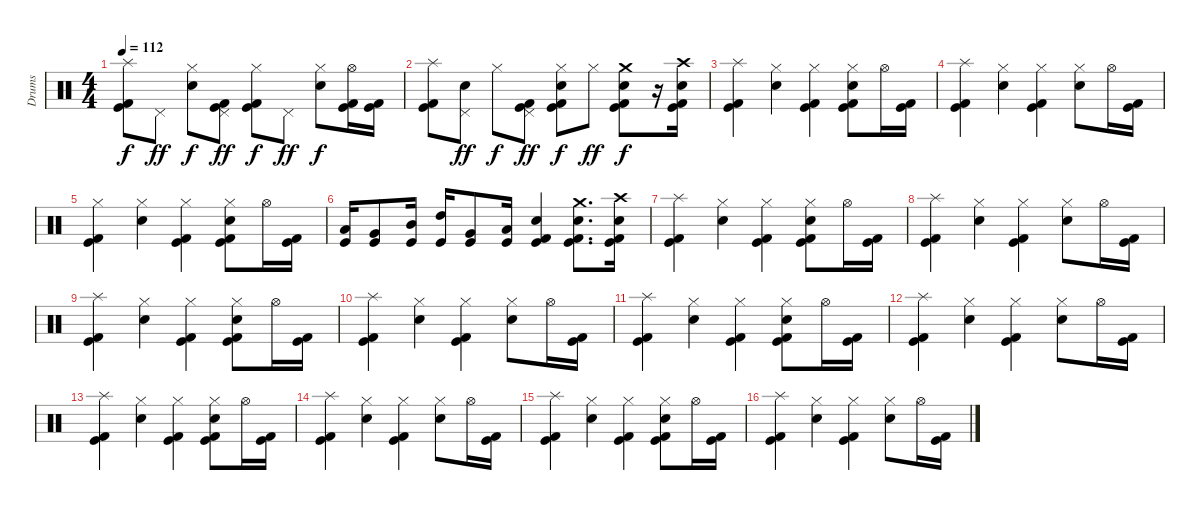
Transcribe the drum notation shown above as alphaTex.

\track ("Drums" "Drums") {instrument percussion}
\staff {score}
\articulation defaults
\ts (4 4)
\tempo 112
\clef neutral
\ks c
("Splash (hit)" "Kick (hit) 2" "Kick (hit)").8{dy f} "Pedal Hi-Hat (hit)".8{dy ff} ("Hi-Hat (closed)" "Electric Snare (hit)").8{dy f} ("Pedal Hi-Hat (hit)" "Kick (hit)" "Kick (hit) 2").8{dy ff} ("Hi-Hat (closed)" "Kick (hit)" "Kick (hit) 2").8{dy f} "Pedal Hi-Hat (hit)".8{dy ff} ("Hi-Hat (closed)" "Electric Snare (hit)").8{dy f} ("Hi-Hat (open)" "Kick (hit) 2" "Kick (hit)").16 ("Kick (hit) 2" "Kick (hit)").16 |
("Splash (hit)" "Kick (hit) 2" "Kick (hit)").8 ("Pedal Hi-Hat (hit)" "Electric Snare (hit)").8{dy ff} "Hi-Hat (closed)".8{dy f} ("Pedal Hi-Hat (hit)" "Kick (hit)" "Kick (hit) 2").8{dy ff} ("Hi-Hat (closed)" "Electric Snare (hit)" "Kick (hit)" "Kick (hit) 2").8{dy f} "Hi-Hat (closed)".8{dy ff} ("Crash medium (hit)" "Electric Snare (hit)" "Kick (hit) 2" "Kick (hit)").8{dy f} r.16 ("Crash high (hit)" "Electric Snare (hit)" "Kick (hit) 2" "Kick (hit)").16 |
("Splash (hit)" "Kick (hit) 2" "Kick (hit)").4 ("Hi-Hat (closed)" "Electric Snare (hit)").4 ("Hi-Hat (closed)" "Kick (hit) 2" "Kick (hit)").4 ("Hi-Hat (closed)" "Electric Snare (hit)" "Kick (hit) 2" "Kick (hit)").8 "Hi-Hat (open)".16 ("Kick (hit) 2" "Kick (hit)").16 |
("Splash (hit)" "Kick (hit) 2" "Kick (hit)").4 ("Hi-Hat (closed)" "Electric Snare (hit)").4 ("Hi-Hat (closed)" "Kick (hit) 2" "Kick (hit)").4 ("Hi-Hat (closed)" "Electric Snare (hit)").8 "Hi-Hat (open)".16 ("Kick (hit) 2" "Kick (hit)").16 |
("Hi-Hat (closed)" "Kick (hit) 2" "Kick (hit)").4 ("Hi-Hat (closed)" "Electric Snare (hit)").4 ("Hi-Hat (closed)" "Kick (hit) 2" "Kick (hit)").4 ("Hi-Hat (closed)" "Electric Snare (hit)" "Kick (hit) 2" "Kick (hit)").8 "Hi-Hat (open)".16 ("Kick (hit) 2" "Kick (hit)").16 |
("Low Tom (hit)" "Kick (hit)").16 ("Very Low Tom (hit)" "Kick (hit)").8 ("Mid Tom (hit)" "Kick (hit)").16 ("High Tom (hit)" "Kick (hit)").16 ("Very Low Tom (hit)" "Kick (hit)").8 ("Low Floor Tom (hit)" "Kick (hit)").16 ("Electric Snare (hit)" "Kick (hit) 2" "Kick (hit)").4 ("Crash medium (hit)" "Electric Snare (hit)" "Kick (hit) 2" "Kick (hit)").8{d} ("Crash high (hit)" "Electric Snare (hit)" "Kick (hit) 2" "Kick (hit)").16 |
("Splash (hit)" "Kick (hit) 2" "Kick (hit)").4 ("Hi-Hat (closed)" "Electric Snare (hit)").4 ("Hi-Hat (closed)" "Kick (hit) 2" "Kick (hit)").4 ("Hi-Hat (closed)" "Electric Snare (hit)" "Kick (hit) 2" "Kick (hit)").8 "Hi-Hat (open)".16 ("Kick (hit) 2" "Kick (hit)").16 |
("Splash (hit)" "Kick (hit) 2" "Kick (hit)").4 ("Hi-Hat (closed)" "Electric Snare (hit)").4 ("Hi-Hat (closed)" "Kick (hit) 2" "Kick (hit)").4 ("Hi-Hat (closed)" "Electric Snare (hit)").8 "Hi-Hat (open)".16 ("Kick (hit) 2" "Kick (hit)").16 |
("Splash (hit)" "Kick (hit) 2" "Kick (hit)").4 ("Hi-Hat (closed)" "Electric Snare (hit)").4 ("Hi-Hat (closed)" "Kick (hit) 2" "Kick (hit)").4 ("Hi-Hat (closed)" "Electric Snare (hit)" "Kick (hit) 2" "Kick (hit)").8 "Hi-Hat (open)".16 ("Kick (hit) 2" "Kick (hit)").16 |
("Splash (hit)" "Kick (hit) 2" "Kick (hit)").4 ("Hi-Hat (closed)" "Electric Snare (hit)").4 ("Hi-Hat (closed)" "Kick (hit) 2" "Kick (hit)").4 ("Hi-Hat (closed)" "Electric Snare (hit)").8 "Hi-Hat (open)".16 ("Kick (hit) 2" "Kick (hit)").16 |
("Splash (hit)" "Kick (hit) 2" "Kick (hit)").4 ("Hi-Hat (closed)" "Electric Snare (hit)").4 ("Hi-Hat (closed)" "Kick (hit) 2" "Kick (hit)").4 ("Hi-Hat (closed)" "Electric Snare (hit)" "Kick (hit) 2" "Kick (hit)").8 "Hi-Hat (open)".16 ("Kick (hit) 2" "Kick (hit)").16 |
("Splash (hit)" "Kick (hit) 2" "Kick (hit)").4 ("Hi-Hat (closed)" "Electric Snare (hit)").4 ("Hi-Hat (closed)" "Kick (hit) 2" "Kick (hit)").4 ("Hi-Hat (closed)" "Electric Snare (hit)").8 "Hi-Hat (open)".16 ("Kick (hit) 2" "Kick (hit)").16 |
("Splash (hit)" "Kick (hit) 2" "Kick (hit)").4 ("Hi-Hat (closed)" "Electric Snare (hit)").4 ("Hi-Hat (closed)" "Kick (hit) 2" "Kick (hit)").4 ("Hi-Hat (closed)" "Electric Snare (hit)" "Kick (hit) 2" "Kick (hit)").8 "Hi-Hat (open)".16 ("Kick (hit) 2" "Kick (hit)").16 |
("Splash (hit)" "Kick (hit) 2" "Kick (hit)").4 ("Hi-Hat (closed)" "Electric Snare (hit)").4 ("Hi-Hat (closed)" "Kick (hit) 2" "Kick (hit)").4 ("Hi-Hat (closed)" "Electric Snare (hit)").8 "Hi-Hat (open)".16 ("Kick (hit) 2" "Kick (hit)").16 |
("Splash (hit)" "Kick (hit) 2" "Kick (hit)").4 ("Hi-Hat (closed)" "Electric Snare (hit)").4 ("Hi-Hat (closed)" "Kick (hit) 2" "Kick (hit)").4 ("Hi-Hat (closed)" "Electric Snare (hit)" "Kick (hit) 2" "Kick (hit)").8 "Hi-Hat (open)".16 ("Kick (hit) 2" "Kick (hit)").16 |
("Splash (hit)" "Kick (hit) 2" "Kick (hit)").4 ("Hi-Hat (closed)" "Electric Snare (hit)").4 ("Hi-Hat (closed)" "Kick (hit) 2" "Kick (hit)").4 ("Hi-Hat (closed)" "Electric Snare (hit)").8 "Hi-Hat (open)".16 ("Kick (hit) 2" "Kick (hit)").16
